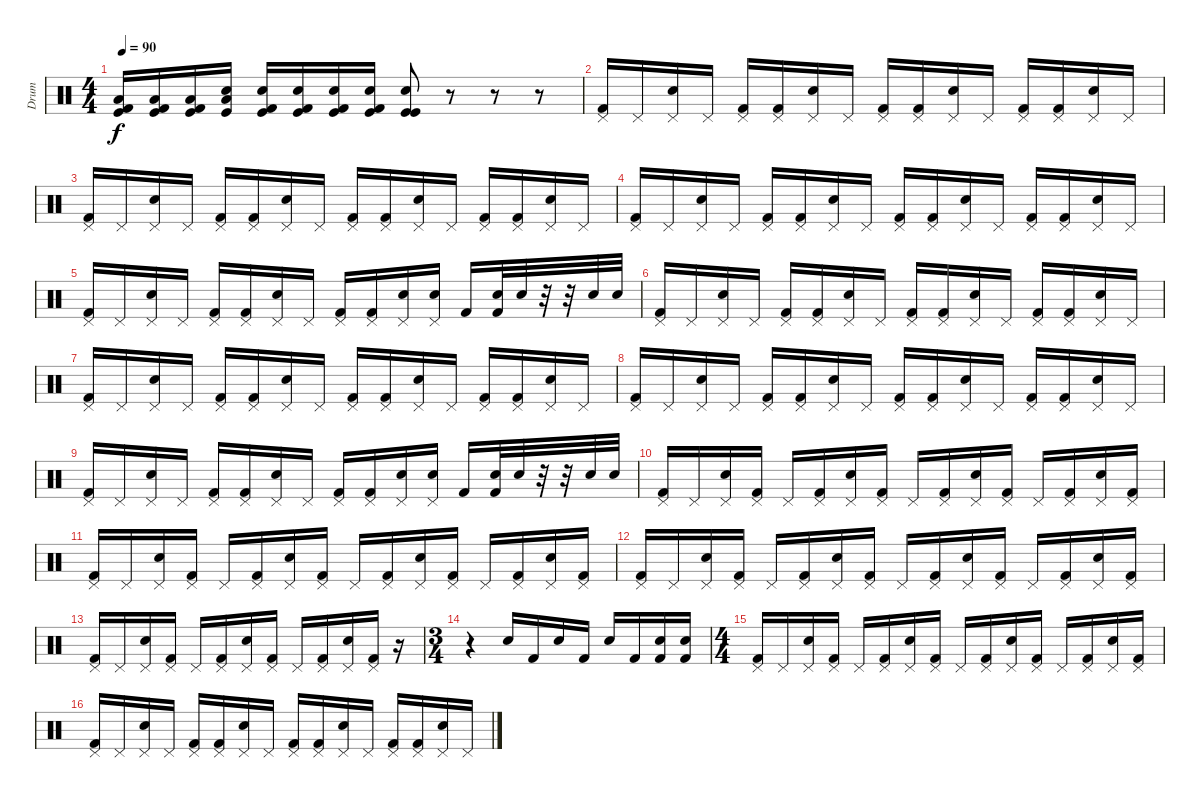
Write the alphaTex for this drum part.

\track ("Drum" "Drum") {instrument percussion}
\staff {score}
\articulation defaults
\ts (4 4)
\tempo 90
\clef neutral
\ks c
("Kick (hit)" "Low Tom (hit)" "Kick (hit) 2").16{dy f} ("Kick (hit)" "Low Tom (hit)" "Kick (hit) 2").16 ("Kick (hit)" "Low Tom (hit)" "Kick (hit) 2").16 ("Kick (hit)" "Low Tom (hit)" "Snare (hit)").16 ("Kick (hit)" "Snare (hit) 2" "Kick (hit) 2").16 ("Kick (hit)" "Snare (hit) 2" "Kick (hit) 2").16 ("Kick (hit)" "Snare (hit) 2" "Kick (hit) 2").16 ("Kick (hit)" "Snare (hit) 2" "Kick (hit) 2").16 ("Kick (hit)" "Snare (hit) 2" "Kick (hit)").8 r.8 r.8 r.8 |
("Pedal Hi-Hat (hit)" "Kick (hit) 2").16 "Pedal Hi-Hat (hit)".16 ("Pedal Hi-Hat (hit)" "Snare (hit) 2").16 "Pedal Hi-Hat (hit)".16 ("Pedal Hi-Hat (hit)" "Kick (hit) 2").16 ("Pedal Hi-Hat (hit)" "Kick (hit) 2").16 ("Pedal Hi-Hat (hit)" "Snare (hit) 2").16 "Pedal Hi-Hat (hit)".16 ("Pedal Hi-Hat (hit)" "Kick (hit) 2").16 ("Pedal Hi-Hat (hit)" "Kick (hit) 2").16 ("Pedal Hi-Hat (hit)" "Snare (hit) 2").16 "Pedal Hi-Hat (hit)".16 ("Pedal Hi-Hat (hit)" "Kick (hit) 2").16 ("Pedal Hi-Hat (hit)" "Kick (hit) 2").16 ("Pedal Hi-Hat (hit)" "Snare (hit) 2").16 "Pedal Hi-Hat (hit)".16 |
("Pedal Hi-Hat (hit)" "Kick (hit) 2").16 "Pedal Hi-Hat (hit)".16 ("Pedal Hi-Hat (hit)" "Snare (hit) 2").16 "Pedal Hi-Hat (hit)".16 ("Pedal Hi-Hat (hit)" "Kick (hit) 2").16 ("Pedal Hi-Hat (hit)" "Kick (hit) 2").16 ("Pedal Hi-Hat (hit)" "Snare (hit) 2").16 "Pedal Hi-Hat (hit)".16 ("Pedal Hi-Hat (hit)" "Kick (hit) 2").16 ("Pedal Hi-Hat (hit)" "Kick (hit) 2").16 ("Pedal Hi-Hat (hit)" "Snare (hit) 2").16 "Pedal Hi-Hat (hit)".16 ("Pedal Hi-Hat (hit)" "Kick (hit) 2").16 ("Pedal Hi-Hat (hit)" "Kick (hit) 2").16 ("Pedal Hi-Hat (hit)" "Snare (hit) 2").16 "Pedal Hi-Hat (hit)".16 |
("Pedal Hi-Hat (hit)" "Kick (hit) 2").16 "Pedal Hi-Hat (hit)".16 ("Pedal Hi-Hat (hit)" "Snare (hit) 2").16 "Pedal Hi-Hat (hit)".16 ("Pedal Hi-Hat (hit)" "Kick (hit) 2").16 ("Pedal Hi-Hat (hit)" "Kick (hit) 2").16 ("Pedal Hi-Hat (hit)" "Snare (hit) 2").16 "Pedal Hi-Hat (hit)".16 ("Pedal Hi-Hat (hit)" "Kick (hit) 2").16 ("Pedal Hi-Hat (hit)" "Kick (hit) 2").16 ("Pedal Hi-Hat (hit)" "Snare (hit) 2").16 "Pedal Hi-Hat (hit)".16 ("Pedal Hi-Hat (hit)" "Kick (hit) 2").16 ("Pedal Hi-Hat (hit)" "Kick (hit) 2").16 ("Pedal Hi-Hat (hit)" "Snare (hit) 2").16 "Pedal Hi-Hat (hit)".16 |
("Pedal Hi-Hat (hit)" "Kick (hit) 2").16 "Pedal Hi-Hat (hit)".16 ("Pedal Hi-Hat (hit)" "Snare (hit) 2").16 "Pedal Hi-Hat (hit)".16 ("Pedal Hi-Hat (hit)" "Kick (hit) 2").16 ("Pedal Hi-Hat (hit)" "Kick (hit) 2").16 ("Pedal Hi-Hat (hit)" "Snare (hit) 2").16 "Pedal Hi-Hat (hit)".16 ("Pedal Hi-Hat (hit)" "Kick (hit) 2").16 ("Pedal Hi-Hat (hit)" "Kick (hit) 2").16 ("Pedal Hi-Hat (hit)" "Snare (hit) 2").16 ("Pedal Hi-Hat (hit)" "Snare (hit) 2").16 "Kick (hit) 2".16 ("Snare (hit) 2" "Kick (hit) 2").32 "Snare (hit) 2".32 r.32 r.32 "Snare (hit) 2".32 "Snare (hit) 2".32 |
("Pedal Hi-Hat (hit)" "Kick (hit) 2").16 "Pedal Hi-Hat (hit)".16 ("Pedal Hi-Hat (hit)" "Snare (hit) 2").16 "Pedal Hi-Hat (hit)".16 ("Pedal Hi-Hat (hit)" "Kick (hit) 2").16 ("Pedal Hi-Hat (hit)" "Kick (hit) 2").16 ("Pedal Hi-Hat (hit)" "Snare (hit) 2").16 "Pedal Hi-Hat (hit)".16 ("Pedal Hi-Hat (hit)" "Kick (hit) 2").16 ("Pedal Hi-Hat (hit)" "Kick (hit) 2").16 ("Pedal Hi-Hat (hit)" "Snare (hit) 2").16 "Pedal Hi-Hat (hit)".16 ("Pedal Hi-Hat (hit)" "Kick (hit) 2").16 ("Pedal Hi-Hat (hit)" "Kick (hit) 2").16 ("Pedal Hi-Hat (hit)" "Snare (hit) 2").16 "Pedal Hi-Hat (hit)".16 |
("Pedal Hi-Hat (hit)" "Kick (hit) 2").16 "Pedal Hi-Hat (hit)".16 ("Pedal Hi-Hat (hit)" "Snare (hit) 2").16 "Pedal Hi-Hat (hit)".16 ("Pedal Hi-Hat (hit)" "Kick (hit) 2").16 ("Pedal Hi-Hat (hit)" "Kick (hit) 2").16 ("Pedal Hi-Hat (hit)" "Snare (hit) 2").16 "Pedal Hi-Hat (hit)".16 ("Pedal Hi-Hat (hit)" "Kick (hit) 2").16 ("Pedal Hi-Hat (hit)" "Kick (hit) 2").16 ("Pedal Hi-Hat (hit)" "Snare (hit) 2").16 "Pedal Hi-Hat (hit)".16 ("Pedal Hi-Hat (hit)" "Kick (hit) 2").16 ("Pedal Hi-Hat (hit)" "Kick (hit) 2").16 ("Pedal Hi-Hat (hit)" "Snare (hit) 2").16 "Pedal Hi-Hat (hit)".16 |
("Pedal Hi-Hat (hit)" "Kick (hit) 2").16 "Pedal Hi-Hat (hit)".16 ("Pedal Hi-Hat (hit)" "Snare (hit) 2").16 "Pedal Hi-Hat (hit)".16 ("Pedal Hi-Hat (hit)" "Kick (hit) 2").16 ("Pedal Hi-Hat (hit)" "Kick (hit) 2").16 ("Pedal Hi-Hat (hit)" "Snare (hit) 2").16 "Pedal Hi-Hat (hit)".16 ("Pedal Hi-Hat (hit)" "Kick (hit) 2").16 ("Pedal Hi-Hat (hit)" "Kick (hit) 2").16 ("Pedal Hi-Hat (hit)" "Snare (hit) 2").16 "Pedal Hi-Hat (hit)".16 ("Pedal Hi-Hat (hit)" "Kick (hit) 2").16 ("Pedal Hi-Hat (hit)" "Kick (hit) 2").16 ("Pedal Hi-Hat (hit)" "Snare (hit) 2").16 "Pedal Hi-Hat (hit)".16 |
("Pedal Hi-Hat (hit)" "Kick (hit) 2").16 "Pedal Hi-Hat (hit)".16 ("Pedal Hi-Hat (hit)" "Snare (hit) 2").16 "Pedal Hi-Hat (hit)".16 ("Pedal Hi-Hat (hit)" "Kick (hit) 2").16 ("Pedal Hi-Hat (hit)" "Kick (hit) 2").16 ("Pedal Hi-Hat (hit)" "Snare (hit) 2").16 "Pedal Hi-Hat (hit)".16 ("Pedal Hi-Hat (hit)" "Kick (hit) 2").16 ("Pedal Hi-Hat (hit)" "Kick (hit) 2").16 ("Pedal Hi-Hat (hit)" "Snare (hit) 2").16 ("Pedal Hi-Hat (hit)" "Snare (hit) 2").16 "Kick (hit) 2".16 ("Snare (hit) 2" "Kick (hit) 2").32 "Snare (hit) 2".32 r.32 r.32 "Snare (hit) 2".32 "Snare (hit) 2".32 |
("Pedal Hi-Hat (hit)" "Kick (hit) 2").16 "Pedal Hi-Hat (hit)".16 ("Pedal Hi-Hat (hit)" "Snare (hit) 2").16 ("Pedal Hi-Hat (hit)" "Kick (hit) 2").16 "Pedal Hi-Hat (hit)".16 ("Pedal Hi-Hat (hit)" "Kick (hit) 2").16 ("Pedal Hi-Hat (hit)" "Snare (hit) 2").16 ("Pedal Hi-Hat (hit)" "Kick (hit) 2").16 "Pedal Hi-Hat (hit)".16 ("Pedal Hi-Hat (hit)" "Kick (hit) 2").16 ("Pedal Hi-Hat (hit)" "Snare (hit) 2").16 ("Pedal Hi-Hat (hit)" "Kick (hit) 2").16 "Pedal Hi-Hat (hit)".16 ("Pedal Hi-Hat (hit)" "Kick (hit) 2").16 ("Pedal Hi-Hat (hit)" "Snare (hit) 2").16 ("Pedal Hi-Hat (hit)" "Kick (hit) 2").16 |
("Pedal Hi-Hat (hit)" "Kick (hit) 2").16 "Pedal Hi-Hat (hit)".16 ("Pedal Hi-Hat (hit)" "Snare (hit) 2").16 ("Pedal Hi-Hat (hit)" "Kick (hit) 2").16 "Pedal Hi-Hat (hit)".16 ("Pedal Hi-Hat (hit)" "Kick (hit) 2").16 ("Pedal Hi-Hat (hit)" "Snare (hit) 2").16 ("Pedal Hi-Hat (hit)" "Kick (hit) 2").16 "Pedal Hi-Hat (hit)".16 ("Pedal Hi-Hat (hit)" "Kick (hit) 2").16 ("Pedal Hi-Hat (hit)" "Snare (hit) 2").16 ("Pedal Hi-Hat (hit)" "Kick (hit) 2").16 "Pedal Hi-Hat (hit)".16 ("Pedal Hi-Hat (hit)" "Kick (hit) 2").16 ("Pedal Hi-Hat (hit)" "Snare (hit) 2").16 ("Pedal Hi-Hat (hit)" "Kick (hit) 2").16 |
("Pedal Hi-Hat (hit)" "Kick (hit) 2").16 "Pedal Hi-Hat (hit)".16 ("Pedal Hi-Hat (hit)" "Snare (hit) 2").16 ("Pedal Hi-Hat (hit)" "Kick (hit) 2").16 "Pedal Hi-Hat (hit)".16 ("Pedal Hi-Hat (hit)" "Kick (hit) 2").16 ("Pedal Hi-Hat (hit)" "Snare (hit) 2").16 ("Pedal Hi-Hat (hit)" "Kick (hit) 2").16 "Pedal Hi-Hat (hit)".16 ("Pedal Hi-Hat (hit)" "Kick (hit) 2").16 ("Pedal Hi-Hat (hit)" "Snare (hit) 2").16 ("Pedal Hi-Hat (hit)" "Kick (hit) 2").16 "Pedal Hi-Hat (hit)".16 ("Pedal Hi-Hat (hit)" "Kick (hit) 2").16 ("Pedal Hi-Hat (hit)" "Snare (hit) 2").16 ("Pedal Hi-Hat (hit)" "Kick (hit) 2").16 |
("Pedal Hi-Hat (hit)" "Kick (hit) 2").16 "Pedal Hi-Hat (hit)".16 ("Pedal Hi-Hat (hit)" "Snare (hit) 2").16 ("Pedal Hi-Hat (hit)" "Kick (hit) 2").16 "Pedal Hi-Hat (hit)".16 ("Pedal Hi-Hat (hit)" "Kick (hit) 2").16 ("Pedal Hi-Hat (hit)" "Snare (hit) 2").16 ("Pedal Hi-Hat (hit)" "Kick (hit) 2").16 "Pedal Hi-Hat (hit)".16 ("Pedal Hi-Hat (hit)" "Kick (hit) 2").16 ("Pedal Hi-Hat (hit)" "Snare (hit) 2").16 ("Pedal Hi-Hat (hit)" "Kick (hit) 2").16 r.16 |
\ts (3 4)
r.4 "Snare (hit) 2".16 "Kick (hit) 2".16 "Snare (hit) 2".16 "Kick (hit) 2".16 "Snare (hit) 2".16 "Kick (hit) 2".16 ("Snare (hit) 2" "Kick (hit) 2").16 ("Snare (hit) 2" "Kick (hit) 2").16 |
\ts (4 4)
("Pedal Hi-Hat (hit)" "Kick (hit) 2").16 "Pedal Hi-Hat (hit)".16 ("Pedal Hi-Hat (hit)" "Snare (hit) 2").16 ("Pedal Hi-Hat (hit)" "Kick (hit) 2").16 "Pedal Hi-Hat (hit)".16 ("Pedal Hi-Hat (hit)" "Kick (hit) 2").16 ("Pedal Hi-Hat (hit)" "Snare (hit) 2").16 ("Pedal Hi-Hat (hit)" "Kick (hit) 2").16 "Pedal Hi-Hat (hit)".16 ("Pedal Hi-Hat (hit)" "Kick (hit) 2").16 ("Pedal Hi-Hat (hit)" "Snare (hit) 2").16 ("Pedal Hi-Hat (hit)" "Kick (hit) 2").16 "Pedal Hi-Hat (hit)".16 ("Pedal Hi-Hat (hit)" "Kick (hit) 2").16 ("Pedal Hi-Hat (hit)" "Snare (hit) 2").16 ("Pedal Hi-Hat (hit)" "Kick (hit) 2").16 |
("Pedal Hi-Hat (hit)" "Kick (hit) 2").16 "Pedal Hi-Hat (hit)".16 ("Pedal Hi-Hat (hit)" "Snare (hit) 2").16 "Pedal Hi-Hat (hit)".16 ("Pedal Hi-Hat (hit)" "Kick (hit) 2").16 ("Pedal Hi-Hat (hit)" "Kick (hit) 2").16 ("Pedal Hi-Hat (hit)" "Snare (hit) 2").16 "Pedal Hi-Hat (hit)".16 ("Pedal Hi-Hat (hit)" "Kick (hit) 2").16 ("Pedal Hi-Hat (hit)" "Kick (hit) 2").16 ("Pedal Hi-Hat (hit)" "Snare (hit) 2").16 "Pedal Hi-Hat (hit)".16 ("Pedal Hi-Hat (hit)" "Kick (hit) 2").16 ("Pedal Hi-Hat (hit)" "Kick (hit) 2").16 ("Pedal Hi-Hat (hit)" "Snare (hit) 2").16 "Pedal Hi-Hat (hit)".16
